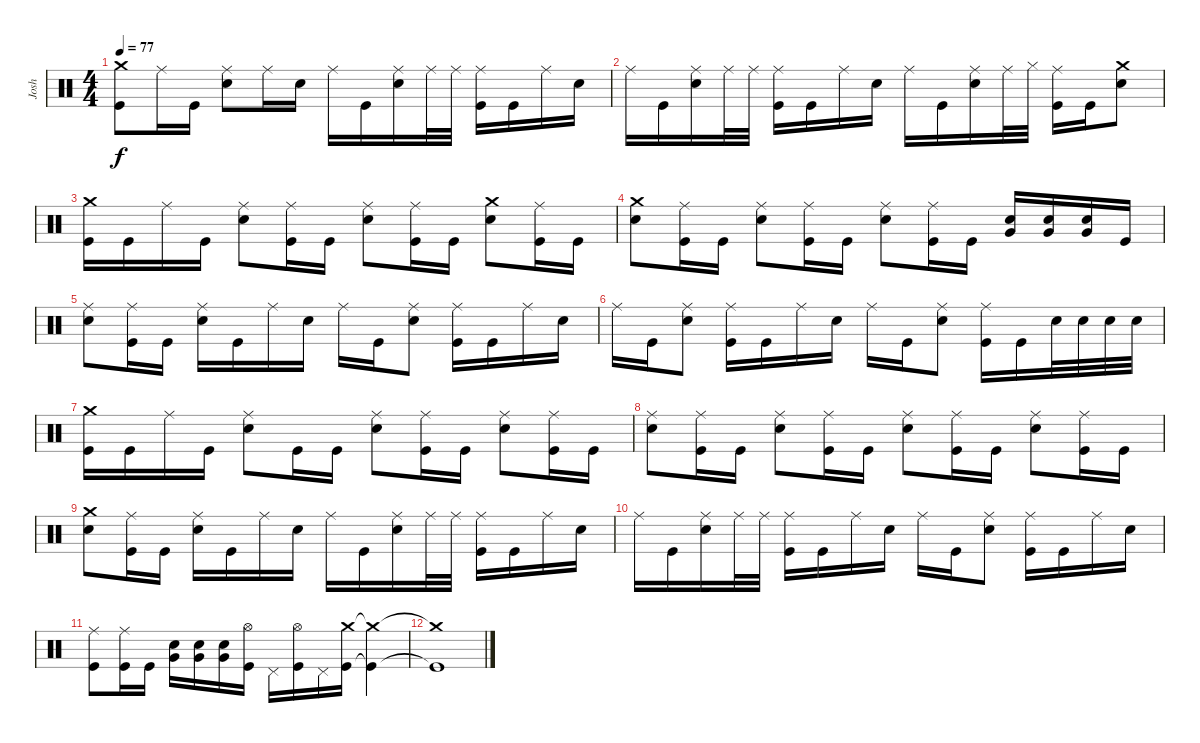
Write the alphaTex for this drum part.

\track ("Josh" "Josh") {instrument percussion}
\staff {score}
\articulation defaults
\ts (4 4)
\tempo 77
\clef neutral
\ks c
("Crash medium (hit)" "Kick (hit)").8{dy f} "Ride (middle)".16 "Kick (hit)".16 ("Ride (middle)" "Snare (hit) 2").8 "Ride (middle)".16 "Snare (hit) 2".16 "Ride (middle)".16 "Kick (hit)".16 ("Ride (middle)" "Snare (hit) 2").16 "Ride (middle)".32 "Ride (middle)".32 ("Ride (middle)" "Kick (hit)").16 "Kick (hit)".16 "Ride (middle)".16 "Snare (hit) 2".16 |
"Ride (middle)".16 "Kick (hit)".16 ("Ride (middle)" "Snare (hit) 2").16 "Ride (middle)".32 "Ride (middle)".32 ("Ride (middle)" "Kick (hit)").16 "Kick (hit)".16 "Ride (middle)".16 "Snare (hit) 2".16 "Ride (middle)".16 "Kick (hit)".16 ("Ride (middle)" "Snare (hit) 2").16 "Ride (middle)".32 "Hi-Hat (closed)".32 ("Ride (middle)" "Kick (hit)").16 "Kick (hit)".16 ("Crash medium (hit)" "Snare (hit) 2").8 |
("Crash medium (hit)" "Kick (hit)").16 "Kick (hit)".16 "Ride (middle)".16 "Kick (hit)".16 ("Ride (middle)" "Snare (hit) 2").8 ("Ride (middle)" "Kick (hit)").16 "Kick (hit)".16 ("Ride (middle)" "Snare (hit) 2").8 ("Ride (middle)" "Kick (hit)").16 "Kick (hit)".16 ("Crash medium (hit)" "Snare (hit) 2").8 ("Ride (middle)" "Kick (hit)").16 "Kick (hit)".16 |
("Crash medium (hit)" "Snare (hit) 2").8 ("Ride (middle)" "Kick (hit)").16 "Kick (hit)".16 ("Ride (middle)" "Snare (hit) 2").8 ("Ride (middle)" "Kick (hit)").16 "Kick (hit)".16 ("Ride (middle)" "Snare (hit) 2").8 ("Ride (middle)" "Kick (hit)").16 "Kick (hit)".16 ("Very Low Tom (hit)" "Snare (hit) 2").16 ("Very Low Tom (hit)" "Snare (hit) 2").16 ("Very Low Tom (hit)" "Snare (hit) 2").16 "Kick (hit)".16 |
("Ride (middle)" "Snare (hit) 2").8 ("Ride (middle)" "Kick (hit)").16 "Kick (hit)".16 ("Ride (middle)" "Snare (hit) 2").16 "Kick (hit)".16 "Ride (middle)".16 "Snare (hit) 2".16 "Ride (middle)".16 "Kick (hit)".16 ("Ride (middle)" "Snare (hit) 2").8 ("Ride (middle)" "Kick (hit)").16 "Kick (hit)".16 "Ride (middle)".16 "Snare (hit) 2".16 |
"Ride (middle)".16 "Kick (hit)".16 ("Ride (middle)" "Snare (hit) 2").8 ("Ride (middle)" "Kick (hit)").16 "Kick (hit)".16 "Ride (middle)".16 "Snare (hit) 2".16 "Ride (middle)".16 "Kick (hit)".16 ("Ride (middle)" "Snare (hit) 2").8 ("Ride (middle)" "Kick (hit)").16 "Kick (hit)".16 "Snare (hit) 2".32 "Snare (hit) 2".32 "Snare (hit) 2".32 "Snare (hit) 2".32 |
("Crash medium (hit)" "Kick (hit)").16 "Kick (hit)".16 "Ride (middle)".16 "Kick (hit)".16 ("Ride (middle)" "Snare (hit) 2").8 "Kick (hit)".16 "Kick (hit)".16 ("Ride (middle)" "Snare (hit) 2").8 ("Ride (middle)" "Kick (hit)").16 "Kick (hit)".16 ("Ride (middle)" "Snare (hit) 2").8 ("Ride (middle)" "Kick (hit)").16 "Kick (hit)".16 |
("Ride (middle)" "Snare (hit) 2").8 ("Ride (middle)" "Kick (hit)").16 "Kick (hit)".16 ("Ride (middle)" "Snare (hit) 2").8 ("Ride (middle)" "Kick (hit)").16 "Kick (hit)".16 ("Ride (middle)" "Snare (hit) 2").8 ("Ride (middle)" "Kick (hit)").16 "Kick (hit)".16 ("Ride (middle)" "Snare (hit) 2").8 ("Ride (middle)" "Kick (hit)").16 "Kick (hit)".16 |
("Crash medium (hit)" "Snare (hit) 2").8 ("Ride (middle)" "Kick (hit)").16 "Kick (hit)".16 ("Ride (middle)" "Snare (hit) 2").16 "Kick (hit)".16 "Ride (middle)".16 "Snare (hit) 2".16 "Ride (middle)".16 "Kick (hit)".16 ("Ride (middle)" "Snare (hit) 2").16 "Ride (middle)".32 "Ride (middle)".32 ("Ride (middle)" "Kick (hit)").16 "Kick (hit)".16 "Ride (middle)".16 "Snare (hit) 2".16 |
"Ride (middle)".16 "Kick (hit)".16 ("Ride (middle)" "Snare (hit) 2").16 "Ride (middle)".32 "Ride (middle)".32 ("Ride (middle)" "Kick (hit)").16 "Kick (hit)".16 "Ride (middle)".16 "Snare (hit) 2".16 "Ride (middle)".16 "Kick (hit)".16 ("Ride (middle)" "Snare (hit) 2").8 ("Ride (middle)" "Kick (hit)").16 "Kick (hit)".16 "Ride (middle)".16 "Snare (hit) 2".16 |
("Ride (middle)" "Kick (hit)").8 ("Ride (middle)" "Kick (hit)").16 "Kick (hit)".16 ("Very Low Tom (hit)" "Snare (hit) 2").16 ("Very Low Tom (hit)" "Snare (hit) 2").16 ("Very Low Tom (hit)" "Snare (hit) 2").16 ("Hi-Hat (open)" "Kick (hit)").16 "Pedal Hi-Hat (hit)".16 ("Hi-Hat (open)" "Kick (hit)").16 "Pedal Hi-Hat (hit)".16 ("Crash medium (hit)" "Kick (hit)").16 ("Crash medium (hit)"{t} "Kick (hit)"{t}).4 |
("Crash medium (hit)"{t} "Kick (hit)"{t}).1
